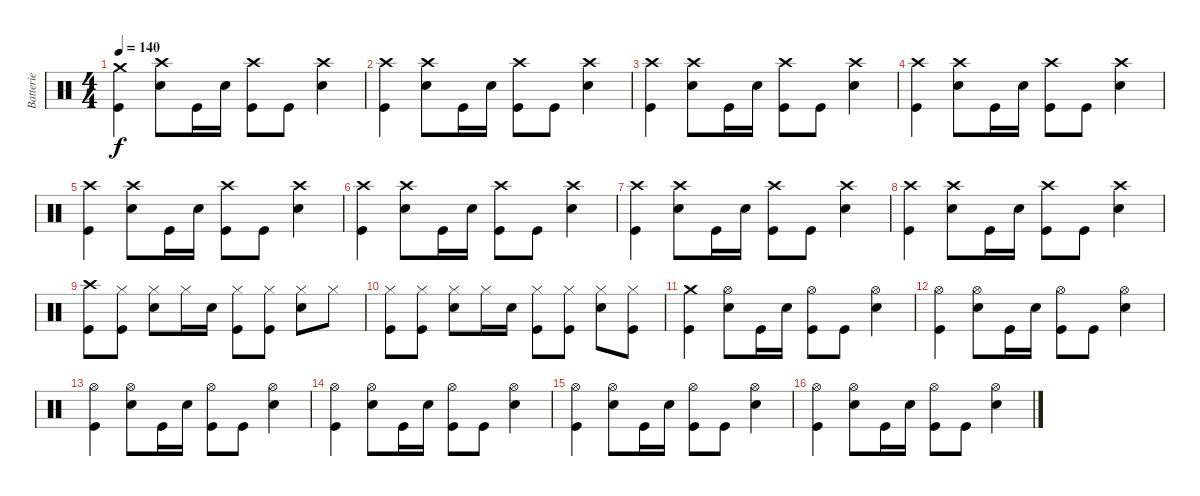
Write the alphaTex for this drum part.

\track ("Batterie" "Batterie") {instrument percussion}
\staff {score}
\articulation defaults
\ts (4 4)
\tempo 140
\clef neutral
\ks c
("Crash medium (hit)" "Kick (hit)").4{dy f} ("Crash high (hit)" "Electric Snare (hit)").8 "Kick (hit)".16 "Electric Snare (hit)".16 ("Crash high (hit)" "Kick (hit)").8 "Kick (hit)".8 ("Crash high (hit)" "Electric Snare (hit)").4 |
("Crash high (hit)" "Kick (hit)").4 ("Crash high (hit)" "Electric Snare (hit)").8 "Kick (hit)".16 "Electric Snare (hit)".16 ("Crash high (hit)" "Kick (hit)").8 "Kick (hit)".8 ("Crash high (hit)" "Electric Snare (hit)").4 |
("Crash high (hit)" "Kick (hit)").4 ("Crash high (hit)" "Electric Snare (hit)").8 "Kick (hit)".16 "Electric Snare (hit)".16 ("Crash high (hit)" "Kick (hit)").8 "Kick (hit)".8 ("Crash high (hit)" "Electric Snare (hit)").4 |
("Crash high (hit)" "Kick (hit)").4 ("Crash high (hit)" "Electric Snare (hit)").8 "Kick (hit)".16 "Electric Snare (hit)".16 ("Crash high (hit)" "Kick (hit)").8 "Kick (hit)".8 ("Crash high (hit)" "Electric Snare (hit)").4 |
("Crash high (hit)" "Kick (hit)").4 ("Crash high (hit)" "Electric Snare (hit)").8 "Kick (hit)".16 "Electric Snare (hit)".16 ("Crash high (hit)" "Kick (hit)").8 "Kick (hit)".8 ("Crash high (hit)" "Electric Snare (hit)").4 |
("Crash high (hit)" "Kick (hit)").4 ("Crash high (hit)" "Electric Snare (hit)").8 "Kick (hit)".16 "Electric Snare (hit)".16 ("Crash high (hit)" "Kick (hit)").8 "Kick (hit)".8 ("Crash high (hit)" "Electric Snare (hit)").4 |
("Crash high (hit)" "Kick (hit)").4 ("Crash high (hit)" "Electric Snare (hit)").8 "Kick (hit)".16 "Electric Snare (hit)".16 ("Crash high (hit)" "Kick (hit)").8 "Kick (hit)".8 ("Crash high (hit)" "Electric Snare (hit)").4 |
("Crash high (hit)" "Kick (hit)").4 ("Crash high (hit)" "Electric Snare (hit)").8 "Kick (hit)".16 "Electric Snare (hit)".16 ("Crash high (hit)" "Kick (hit)").8 "Kick (hit)".8 ("Crash high (hit)" "Electric Snare (hit)").4 |
("Crash high (hit)" "Kick (hit)").8 ("Hi-Hat (closed)" "Kick (hit)").8 ("Hi-Hat (closed)" "Electric Snare (hit)").8 "Hi-Hat (closed)".16 "Electric Snare (hit)".16 ("Hi-Hat (closed)" "Kick (hit)").8 ("Hi-Hat (closed)" "Kick (hit)").8 ("Hi-Hat (closed)" "Electric Snare (hit)").8 "Hi-Hat (closed)".8 |
("Hi-Hat (closed)" "Kick (hit)").8 ("Hi-Hat (closed)" "Kick (hit)").8 ("Hi-Hat (closed)" "Electric Snare (hit)").8 "Hi-Hat (closed)".16 "Electric Snare (hit)".16 ("Hi-Hat (closed)" "Kick (hit)").8 ("Hi-Hat (closed)" "Kick (hit)").8 ("Hi-Hat (closed)" "Electric Snare (hit)").8 ("Hi-Hat (closed)" "Kick (hit)").8 |
("Crash medium (hit)" "Kick (hit)").4 ("Hi-Hat (open)" "Electric Snare (hit)").8 "Kick (hit)".16 "Electric Snare (hit)".16 ("Hi-Hat (open)" "Kick (hit)").8 "Kick (hit)".8 ("Hi-Hat (open)" "Electric Snare (hit)").4 |
("Hi-Hat (open)" "Kick (hit)").4 ("Hi-Hat (open)" "Electric Snare (hit)").8 "Kick (hit)".16 "Electric Snare (hit)".16 ("Hi-Hat (open)" "Kick (hit)").8 "Kick (hit)".8 ("Hi-Hat (open)" "Electric Snare (hit)").4 |
("Hi-Hat (open)" "Kick (hit)").4 ("Hi-Hat (open)" "Electric Snare (hit)").8 "Kick (hit)".16 "Electric Snare (hit)".16 ("Hi-Hat (open)" "Kick (hit)").8 "Kick (hit)".8 ("Hi-Hat (open)" "Electric Snare (hit)").4 |
("Hi-Hat (open)" "Kick (hit)").4 ("Hi-Hat (open)" "Electric Snare (hit)").8 "Kick (hit)".16 "Electric Snare (hit)".16 ("Hi-Hat (open)" "Kick (hit)").8 "Kick (hit)".8 ("Hi-Hat (open)" "Electric Snare (hit)").4 |
("Hi-Hat (open)" "Kick (hit)").4 ("Hi-Hat (open)" "Electric Snare (hit)").8 "Kick (hit)".16 "Electric Snare (hit)".16 ("Hi-Hat (open)" "Kick (hit)").8 "Kick (hit)".8 ("Hi-Hat (open)" "Electric Snare (hit)").4 |
("Hi-Hat (open)" "Kick (hit)").4 ("Hi-Hat (open)" "Electric Snare (hit)").8 "Kick (hit)".16 "Electric Snare (hit)".16 ("Hi-Hat (open)" "Kick (hit)").8 "Kick (hit)".8 ("Hi-Hat (open)" "Electric Snare (hit)").4
